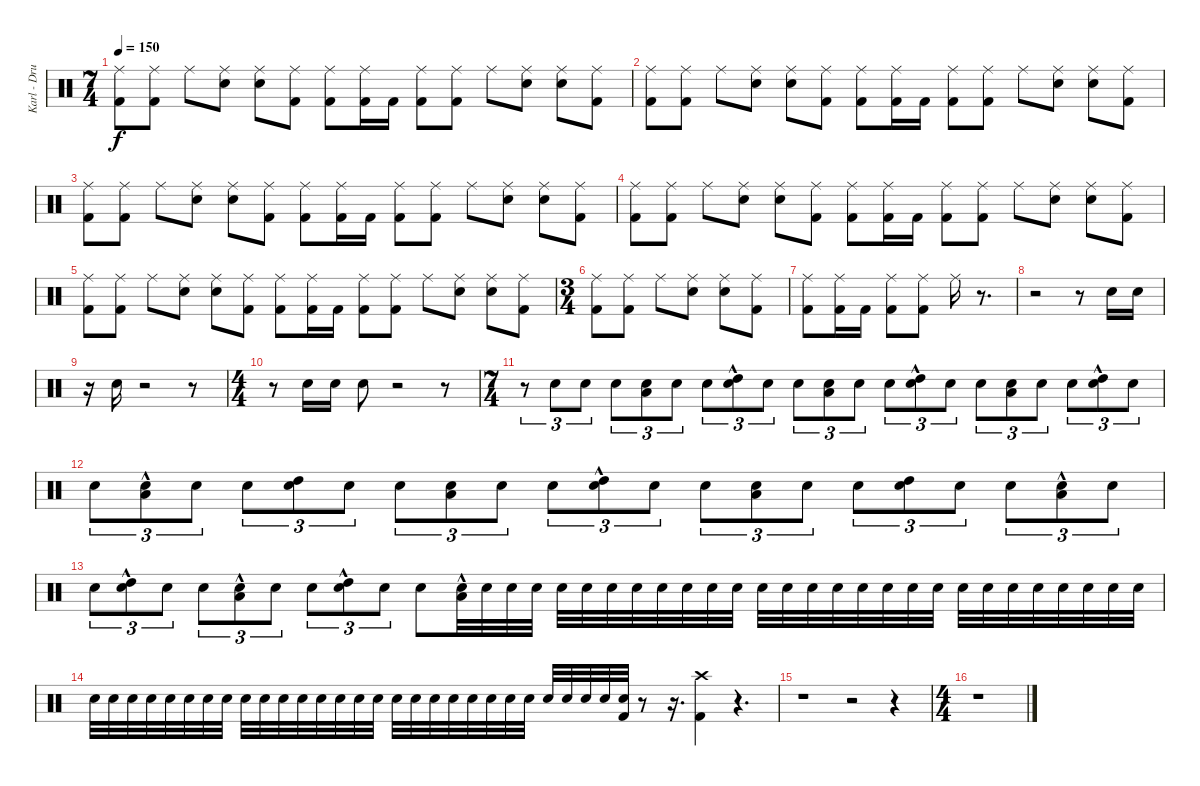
\track ("Karl - Drums" "Karl - Dru") {instrument percussion}
\staff {score}
\articulation defaults
\ts (7 4)
\tempo 150
\clef neutral
\ks c
("Ride (middle)" "Kick (hit) 2").8{dy f} ("Ride (middle)" "Kick (hit) 2").8 "Ride (middle)".8 ("Ride (middle)" "Snare (hit) 2").8 ("Ride (middle)" "Snare (hit) 2").8 ("Ride (middle)" "Kick (hit) 2").8 ("Ride (middle)" "Kick (hit) 2").8 ("Ride (middle)" "Kick (hit) 2").16 "Kick (hit) 2".16 ("Ride (middle)" "Kick (hit) 2").8 ("Ride (middle)" "Kick (hit) 2").8 "Ride (middle)".8 ("Ride (middle)" "Snare (hit) 2").8 ("Ride (middle)" "Snare (hit) 2").8 ("Ride (middle)" "Kick (hit) 2").8 |
("Ride (middle)" "Kick (hit) 2").8 ("Ride (middle)" "Kick (hit) 2").8 "Ride (middle)".8 ("Ride (middle)" "Snare (hit) 2").8 ("Ride (middle)" "Snare (hit) 2").8 ("Ride (middle)" "Kick (hit) 2").8 ("Ride (middle)" "Kick (hit) 2").8 ("Ride (middle)" "Kick (hit) 2").16 "Kick (hit) 2".16 ("Ride (middle)" "Kick (hit) 2").8 ("Ride (middle)" "Kick (hit) 2").8 "Ride (middle)".8 ("Ride (middle)" "Snare (hit) 2").8 ("Ride (middle)" "Snare (hit) 2").8 ("Ride (middle)" "Kick (hit) 2").8 |
("Ride (middle)" "Kick (hit) 2").8 ("Ride (middle)" "Kick (hit) 2").8 "Ride (middle)".8 ("Ride (middle)" "Snare (hit) 2").8 ("Ride (middle)" "Snare (hit) 2").8 ("Ride (middle)" "Kick (hit) 2").8 ("Ride (middle)" "Kick (hit) 2").8 ("Ride (middle)" "Kick (hit) 2").16 "Kick (hit) 2".16 ("Ride (middle)" "Kick (hit) 2").8 ("Ride (middle)" "Kick (hit) 2").8 "Ride (middle)".8 ("Ride (middle)" "Snare (hit) 2").8 ("Ride (middle)" "Snare (hit) 2").8 ("Ride (middle)" "Kick (hit) 2").8 |
("Ride (middle)" "Kick (hit) 2").8 ("Ride (middle)" "Kick (hit) 2").8 "Ride (middle)".8 ("Ride (middle)" "Snare (hit) 2").8 ("Ride (middle)" "Snare (hit) 2").8 ("Ride (middle)" "Kick (hit) 2").8 ("Ride (middle)" "Kick (hit) 2").8 ("Ride (middle)" "Kick (hit) 2").16 "Kick (hit) 2".16 ("Ride (middle)" "Kick (hit) 2").8 ("Ride (middle)" "Kick (hit) 2").8 "Ride (middle)".8 ("Ride (middle)" "Snare (hit) 2").8 ("Ride (middle)" "Snare (hit) 2").8 ("Ride (middle)" "Kick (hit) 2").8 |
("Ride (middle)" "Kick (hit) 2").8 ("Ride (middle)" "Kick (hit) 2").8 "Ride (middle)".8 ("Ride (middle)" "Snare (hit) 2").8 ("Ride (middle)" "Snare (hit) 2").8 ("Ride (middle)" "Kick (hit) 2").8 ("Ride (middle)" "Kick (hit) 2").8 ("Ride (middle)" "Kick (hit) 2").16 "Kick (hit) 2".16 ("Ride (middle)" "Kick (hit) 2").8 ("Ride (middle)" "Kick (hit) 2").8 "Ride (middle)".8 ("Ride (middle)" "Snare (hit) 2").8 ("Ride (middle)" "Snare (hit) 2").8 ("Ride (middle)" "Kick (hit) 2").8 |
\ts (3 4)
("Ride (middle)" "Kick (hit) 2").8 ("Ride (middle)" "Kick (hit) 2").8 "Ride (middle)".8 ("Ride (middle)" "Snare (hit) 2").8 ("Ride (middle)" "Snare (hit) 2").8 ("Ride (middle)" "Kick (hit) 2").8 |
("Ride (middle)" "Kick (hit) 2").8 ("Ride (middle)" "Kick (hit) 2").16 "Kick (hit) 2".16 ("Ride (middle)" "Kick (hit) 2").8 ("Ride (middle)" "Kick (hit) 2").8 "Ride (middle)".16 r.8{d} |
r.2 r.8 "Snare (hit) 2".16 "Snare (hit) 2".16 |
r.16 "Snare (hit) 2".16 r.2 r.8 |
\ts (4 4)
r.8 "Snare (hit) 2".16 "Snare (hit) 2".16 "Snare (hit) 2".8 r.2 r.8 |
\ts (7 4)
r.8{tu (3 2)} "Snare (hit) 2".8{tu (3 2)} "Snare (hit) 2".8{tu (3 2)} "Snare (hit) 2".8{tu (3 2)} ("Low Tom (hit)" "Snare (hit) 2").8{tu (3 2)} "Snare (hit) 2".8{tu (3 2)} "Snare (hit) 2".8{tu (3 2)} ("High Tom (hit)"{hac} "Snare (hit) 2").8{tu (3 2)} "Snare (hit) 2".8{tu (3 2)} "Snare (hit) 2".8{tu (3 2)} ("Low Tom (hit)" "Snare (hit) 2").8{tu (3 2)} "Snare (hit) 2".8{tu (3 2)} "Snare (hit) 2".8{tu (3 2)} ("High Tom (hit)"{hac} "Snare (hit) 2").8{tu (3 2)} "Snare (hit) 2".8{tu (3 2)} "Snare (hit) 2".8{tu (3 2)} ("Low Tom (hit)" "Snare (hit) 2").8{tu (3 2)} "Snare (hit) 2".8{tu (3 2)} "Snare (hit) 2".8{tu (3 2)} ("High Tom (hit)"{hac} "Snare (hit) 2").8{tu (3 2)} "Snare (hit) 2".8{tu (3 2)} |
"Snare (hit) 2".8{tu (3 2)} ("Low Tom (hit)"{hac} "Snare (hit) 2").8{tu (3 2)} "Snare (hit) 2".8{tu (3 2)} "Snare (hit) 2".8{tu (3 2)} ("High Tom (hit)" "Snare (hit) 2").8{tu (3 2)} "Snare (hit) 2".8{tu (3 2)} "Snare (hit) 2".8{tu (3 2)} ("Low Tom (hit)" "Snare (hit) 2").8{tu (3 2)} "Snare (hit) 2".8{tu (3 2)} "Snare (hit) 2".8{tu (3 2)} ("High Tom (hit)"{hac} "Snare (hit) 2").8{tu (3 2)} "Snare (hit) 2".8{tu (3 2)} "Snare (hit) 2".8{tu (3 2)} ("Low Tom (hit)" "Snare (hit) 2").8{tu (3 2)} "Snare (hit) 2".8{tu (3 2)} "Snare (hit) 2".8{tu (3 2)} ("High Tom (hit)" "Snare (hit) 2").8{tu (3 2)} "Snare (hit) 2".8{tu (3 2)} "Snare (hit) 2".8{tu (3 2)} ("Low Tom (hit)"{hac} "Snare (hit) 2").8{tu (3 2)} "Snare (hit) 2".8{tu (3 2)} |
"Snare (hit) 2".8{tu (3 2)} ("High Tom (hit)"{hac} "Snare (hit) 2").8{tu (3 2)} "Snare (hit) 2".8{tu (3 2)} "Snare (hit) 2".8{tu (3 2)} ("Low Tom (hit)"{hac} "Snare (hit) 2").8{tu (3 2)} "Snare (hit) 2".8{tu (3 2)} "Snare (hit) 2".8{tu (3 2)} ("High Tom (hit)"{hac} "Snare (hit) 2").8{tu (3 2)} "Snare (hit) 2".8{tu (3 2)} "Snare (hit) 2".8 ("Low Tom (hit)"{hac} "Snare (hit) 2").32 "Snare (hit) 2".32 "Snare (hit) 2".32 "Snare (hit) 2".32 "Snare (hit) 2".32 "Snare (hit) 2".32 "Snare (hit) 2".32 "Snare (hit) 2".32 "Snare (hit) 2".32 "Snare (hit) 2".32 "Snare (hit) 2".32 "Snare (hit) 2".32 "Snare (hit) 2".32 "Snare (hit) 2".32 "Snare (hit) 2".32 "Snare (hit) 2".32 "Snare (hit) 2".32 "Snare (hit) 2".32 "Snare (hit) 2".32 "Snare (hit) 2".32 "Snare (hit) 2".32 "Snare (hit) 2".32 "Snare (hit) 2".32 "Snare (hit) 2".32 "Snare (hit) 2".32 "Snare (hit) 2".32 "Snare (hit) 2".32 "Snare (hit) 2".32 |
"Snare (hit) 2".32 "Snare (hit) 2".32 "Snare (hit) 2".32 "Snare (hit) 2".32 "Snare (hit) 2".32 "Snare (hit) 2".32 "Snare (hit) 2".32 "Snare (hit) 2".32 "Snare (hit) 2".32 "Snare (hit) 2".32 "Snare (hit) 2".32 "Snare (hit) 2".32 "Snare (hit) 2".32 "Snare (hit) 2".32 "Snare (hit) 2".32 "Snare (hit) 2".32 "Snare (hit) 2".32 "Snare (hit) 2".32 "Snare (hit) 2".32 "Snare (hit) 2".32 "Snare (hit) 2".32 "Snare (hit) 2".32 "Snare (hit) 2".32 "Snare (hit) 2".32 "Snare (hit) 2".32 "Snare (hit) 2".32 "Snare (hit) 2".32 "Snare (hit) 2".32 ("Snare (hit) 2" "Kick (hit) 2").32 r.8 r.16{d} ("Crash high (hit)" "Kick (hit) 2").4 r.4{d} |
r.1 r.2 r.4 |
\ts (4 4)
r.1
